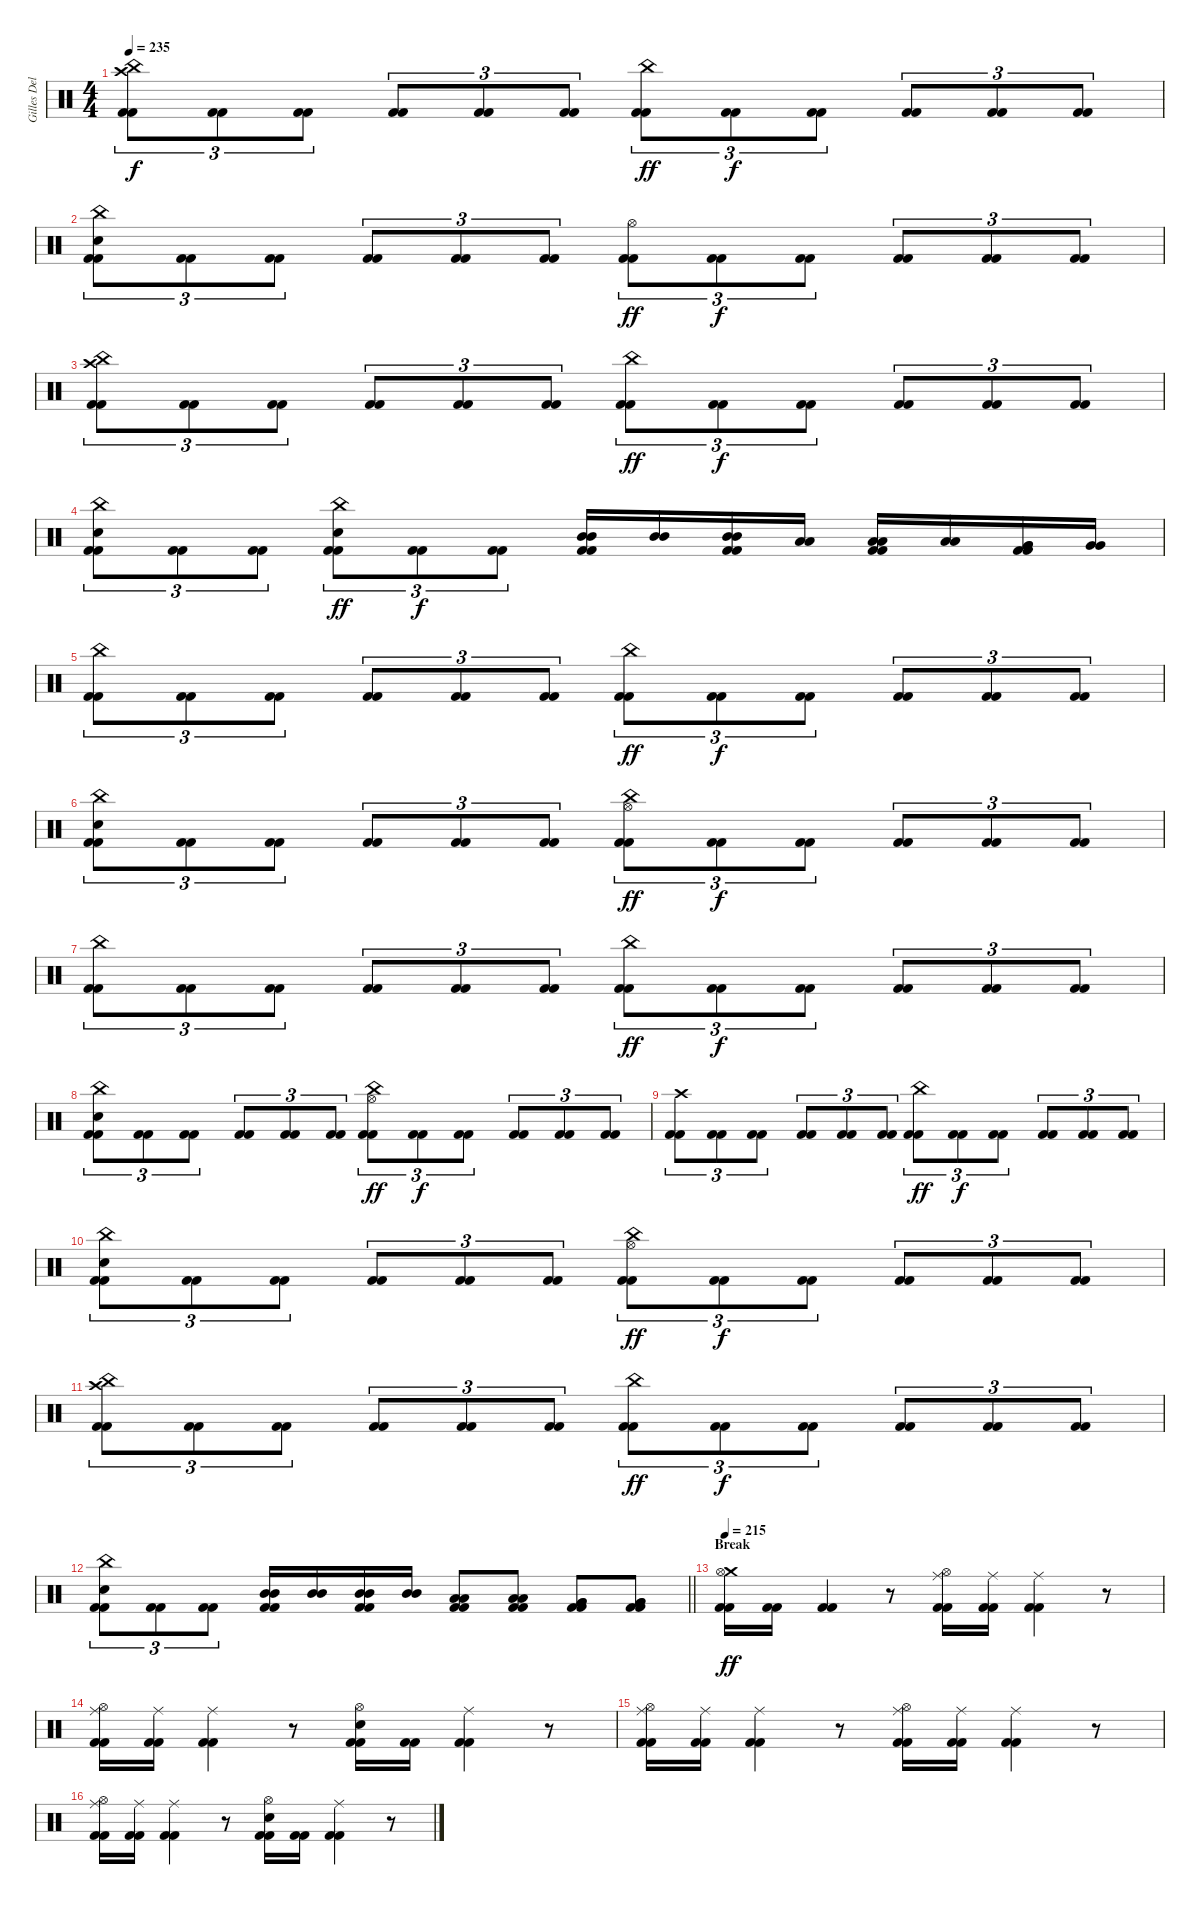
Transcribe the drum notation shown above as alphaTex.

\track ("Gilles Delecroix" "Gilles Del") {instrument percussion}
\staff {score}
\articulation defaults
\ts (4 4)
\tempo 235
\clef neutral
\ks c
("Crash high (hit)" "China (hit)" "Kick (hit) 2" "Kick (hit) 2").8{tu (3 2) dy f} ("Kick (hit) 2" "Kick (hit) 2").8{tu (3 2)} ("Kick (hit) 2" "Kick (hit) 2").8{tu (3 2)} ("Kick (hit) 2" "Kick (hit) 2").8{tu (3 2)} ("Kick (hit) 2" "Kick (hit) 2").8{tu (3 2)} ("Kick (hit) 2" "Kick (hit) 2").8{tu (3 2)} ("China (hit)" "Kick (hit) 2" "Kick (hit) 2").8{tu (3 2) dy ff} ("Kick (hit) 2" "Kick (hit) 2").8{tu (3 2) dy f} ("Kick (hit) 2" "Kick (hit) 2").8{tu (3 2)} ("Kick (hit) 2" "Kick (hit) 2").8{tu (3 2)} ("Kick (hit) 2" "Kick (hit) 2").8{tu (3 2)} ("Kick (hit) 2" "Kick (hit) 2").8{tu (3 2)} |
("China (hit)" "Electric Snare (hit)" "Kick (hit) 2" "Kick (hit) 2").8{tu (3 2)} ("Kick (hit) 2" "Kick (hit) 2").8{tu (3 2)} ("Kick (hit) 2" "Kick (hit) 2").8{tu (3 2)} ("Kick (hit) 2" "Kick (hit) 2").8{tu (3 2)} ("Kick (hit) 2" "Kick (hit) 2").8{tu (3 2)} ("Kick (hit) 2" "Kick (hit) 2").8{tu (3 2)} ("Hi-Hat (open)" "Kick (hit) 2" "Kick (hit) 2").8{tu (3 2) dy ff} ("Kick (hit) 2" "Kick (hit) 2").8{tu (3 2) dy f} ("Kick (hit) 2" "Kick (hit) 2").8{tu (3 2)} ("Kick (hit) 2" "Kick (hit) 2").8{tu (3 2)} ("Kick (hit) 2" "Kick (hit) 2").8{tu (3 2)} ("Kick (hit) 2" "Kick (hit) 2").8{tu (3 2)} |
("Crash high (hit)" "China (hit)" "Kick (hit) 2" "Kick (hit) 2").8{tu (3 2)} ("Kick (hit) 2" "Kick (hit) 2").8{tu (3 2)} ("Kick (hit) 2" "Kick (hit) 2").8{tu (3 2)} ("Kick (hit) 2" "Kick (hit) 2").8{tu (3 2)} ("Kick (hit) 2" "Kick (hit) 2").8{tu (3 2)} ("Kick (hit) 2" "Kick (hit) 2").8{tu (3 2)} ("China (hit)" "Kick (hit) 2" "Kick (hit) 2").8{tu (3 2) dy ff} ("Kick (hit) 2" "Kick (hit) 2").8{tu (3 2) dy f} ("Kick (hit) 2" "Kick (hit) 2").8{tu (3 2)} ("Kick (hit) 2" "Kick (hit) 2").8{tu (3 2)} ("Kick (hit) 2" "Kick (hit) 2").8{tu (3 2)} ("Kick (hit) 2" "Kick (hit) 2").8{tu (3 2)} |
("China (hit)" "Electric Snare (hit)" "Kick (hit) 2" "Kick (hit) 2").8{tu (3 2)} ("Kick (hit) 2" "Kick (hit) 2").8{tu (3 2)} ("Kick (hit) 2" "Kick (hit) 2").8{tu (3 2)} ("China (hit)" "Electric Snare (hit)" "Kick (hit) 2" "Kick (hit) 2").8{tu (3 2) dy ff} ("Kick (hit) 2" "Kick (hit) 2").8{tu (3 2) dy f} ("Kick (hit) 2" "Kick (hit) 2").8{tu (3 2)} ("Mid Tom (hit)" "Mid Tom (hit)" "Kick (hit) 2" "Kick (hit) 2").16 ("Mid Tom (hit)" "Mid Tom (hit)").16 ("Mid Tom (hit)" "Mid Tom (hit)" "Kick (hit) 2" "Kick (hit) 2").16 ("Low Tom (hit)" "Low Tom (hit)").16 ("Low Tom (hit)" "Low Tom (hit)" "Kick (hit) 2" "Kick (hit) 2").16 ("Low Tom (hit)" "Low Tom (hit)").16 ("Very Low Tom (hit)" "Very Low Tom (hit)" "Kick (hit) 2" "Kick (hit) 2").16 ("Very Low Tom (hit)" "Very Low Tom (hit)").16 |
("China (hit)" "Kick (hit) 2" "Kick (hit) 2").8{tu (3 2)} ("Kick (hit) 2" "Kick (hit) 2").8{tu (3 2)} ("Kick (hit) 2" "Kick (hit) 2").8{tu (3 2)} ("Kick (hit) 2" "Kick (hit) 2").8{tu (3 2)} ("Kick (hit) 2" "Kick (hit) 2").8{tu (3 2)} ("Kick (hit) 2" "Kick (hit) 2").8{tu (3 2)} ("China (hit)" "Kick (hit) 2" "Kick (hit) 2").8{tu (3 2) dy ff} ("Kick (hit) 2" "Kick (hit) 2").8{tu (3 2) dy f} ("Kick (hit) 2" "Kick (hit) 2").8{tu (3 2)} ("Kick (hit) 2" "Kick (hit) 2").8{tu (3 2)} ("Kick (hit) 2" "Kick (hit) 2").8{tu (3 2)} ("Kick (hit) 2" "Kick (hit) 2").8{tu (3 2)} |
("China (hit)" "Electric Snare (hit)" "Kick (hit) 2" "Kick (hit) 2").8{tu (3 2)} ("Kick (hit) 2" "Kick (hit) 2").8{tu (3 2)} ("Kick (hit) 2" "Kick (hit) 2").8{tu (3 2)} ("Kick (hit) 2" "Kick (hit) 2").8{tu (3 2)} ("Kick (hit) 2" "Kick (hit) 2").8{tu (3 2)} ("Kick (hit) 2" "Kick (hit) 2").8{tu (3 2)} ("Hi-Hat (open)" "China (hit)" "Kick (hit) 2" "Kick (hit) 2").8{tu (3 2) dy ff} ("Kick (hit) 2" "Kick (hit) 2").8{tu (3 2) dy f} ("Kick (hit) 2" "Kick (hit) 2").8{tu (3 2)} ("Kick (hit) 2" "Kick (hit) 2").8{tu (3 2)} ("Kick (hit) 2" "Kick (hit) 2").8{tu (3 2)} ("Kick (hit) 2" "Kick (hit) 2").8{tu (3 2)} |
("China (hit)" "Kick (hit) 2" "Kick (hit) 2").8{tu (3 2)} ("Kick (hit) 2" "Kick (hit) 2").8{tu (3 2)} ("Kick (hit) 2" "Kick (hit) 2").8{tu (3 2)} ("Kick (hit) 2" "Kick (hit) 2").8{tu (3 2)} ("Kick (hit) 2" "Kick (hit) 2").8{tu (3 2)} ("Kick (hit) 2" "Kick (hit) 2").8{tu (3 2)} ("China (hit)" "Kick (hit) 2" "Kick (hit) 2").8{tu (3 2) dy ff} ("Kick (hit) 2" "Kick (hit) 2").8{tu (3 2) dy f} ("Kick (hit) 2" "Kick (hit) 2").8{tu (3 2)} ("Kick (hit) 2" "Kick (hit) 2").8{tu (3 2)} ("Kick (hit) 2" "Kick (hit) 2").8{tu (3 2)} ("Kick (hit) 2" "Kick (hit) 2").8{tu (3 2)} |
("China (hit)" "Electric Snare (hit)" "Kick (hit) 2" "Kick (hit) 2").8{tu (3 2)} ("Kick (hit) 2" "Kick (hit) 2").8{tu (3 2)} ("Kick (hit) 2" "Kick (hit) 2").8{tu (3 2)} ("Kick (hit) 2" "Kick (hit) 2").8{tu (3 2)} ("Kick (hit) 2" "Kick (hit) 2").8{tu (3 2)} ("Kick (hit) 2" "Kick (hit) 2").8{tu (3 2)} ("Hi-Hat (open)" "China (hit)" "Kick (hit) 2" "Kick (hit) 2").8{tu (3 2) dy ff} ("Kick (hit) 2" "Kick (hit) 2").8{tu (3 2) dy f} ("Kick (hit) 2" "Kick (hit) 2").8{tu (3 2)} ("Kick (hit) 2" "Kick (hit) 2").8{tu (3 2)} ("Kick (hit) 2" "Kick (hit) 2").8{tu (3 2)} ("Kick (hit) 2" "Kick (hit) 2").8{tu (3 2)} |
("Crash high (hit)" "Kick (hit) 2" "Kick (hit) 2").8{tu (3 2)} ("Kick (hit) 2" "Kick (hit) 2").8{tu (3 2)} ("Kick (hit) 2" "Kick (hit) 2").8{tu (3 2)} ("Kick (hit) 2" "Kick (hit) 2").8{tu (3 2)} ("Kick (hit) 2" "Kick (hit) 2").8{tu (3 2)} ("Kick (hit) 2" "Kick (hit) 2").8{tu (3 2)} ("China (hit)" "Kick (hit) 2" "Kick (hit) 2").8{tu (3 2) dy ff} ("Kick (hit) 2" "Kick (hit) 2").8{tu (3 2) dy f} ("Kick (hit) 2" "Kick (hit) 2").8{tu (3 2)} ("Kick (hit) 2" "Kick (hit) 2").8{tu (3 2)} ("Kick (hit) 2" "Kick (hit) 2").8{tu (3 2)} ("Kick (hit) 2" "Kick (hit) 2").8{tu (3 2)} |
("China (hit)" "Electric Snare (hit)" "Kick (hit) 2" "Kick (hit) 2").8{tu (3 2)} ("Kick (hit) 2" "Kick (hit) 2").8{tu (3 2)} ("Kick (hit) 2" "Kick (hit) 2").8{tu (3 2)} ("Kick (hit) 2" "Kick (hit) 2").8{tu (3 2)} ("Kick (hit) 2" "Kick (hit) 2").8{tu (3 2)} ("Kick (hit) 2" "Kick (hit) 2").8{tu (3 2)} ("China (hit)" "Hi-Hat (open)" "Kick (hit) 2" "Kick (hit) 2").8{tu (3 2) dy ff} ("Kick (hit) 2" "Kick (hit) 2").8{tu (3 2) dy f} ("Kick (hit) 2" "Kick (hit) 2").8{tu (3 2)} ("Kick (hit) 2" "Kick (hit) 2").8{tu (3 2)} ("Kick (hit) 2" "Kick (hit) 2").8{tu (3 2)} ("Kick (hit) 2" "Kick (hit) 2").8{tu (3 2)} |
("Crash high (hit)" "China (hit)" "Kick (hit) 2" "Kick (hit) 2").8{tu (3 2)} ("Kick (hit) 2" "Kick (hit) 2").8{tu (3 2)} ("Kick (hit) 2" "Kick (hit) 2").8{tu (3 2)} ("Kick (hit) 2" "Kick (hit) 2").8{tu (3 2)} ("Kick (hit) 2" "Kick (hit) 2").8{tu (3 2)} ("Kick (hit) 2" "Kick (hit) 2").8{tu (3 2)} ("China (hit)" "Kick (hit) 2" "Kick (hit) 2").8{tu (3 2) dy ff} ("Kick (hit) 2" "Kick (hit) 2").8{tu (3 2) dy f} ("Kick (hit) 2" "Kick (hit) 2").8{tu (3 2)} ("Kick (hit) 2" "Kick (hit) 2").8{tu (3 2)} ("Kick (hit) 2" "Kick (hit) 2").8{tu (3 2)} ("Kick (hit) 2" "Kick (hit) 2").8{tu (3 2)} |
\barLineRight lightlight
("China (hit)" "Electric Snare (hit)" "Kick (hit) 2" "Kick (hit) 2").8{tu (3 2)} ("Kick (hit) 2" "Kick (hit) 2").8{tu (3 2)} ("Kick (hit) 2" "Kick (hit) 2").8{tu (3 2)} ("Mid Tom (hit)" "Mid Tom (hit)" "Kick (hit) 2" "Kick (hit) 2").16 ("Mid Tom (hit)" "Mid Tom (hit)").16 ("Mid Tom (hit)" "Mid Tom (hit)" "Kick (hit) 2" "Kick (hit) 2").16 ("Mid Tom (hit)" "Mid Tom (hit)").16 ("Low Tom (hit)" "Low Tom (hit)" "Kick (hit) 2" "Kick (hit) 2").8 ("Low Tom (hit)" "Low Tom (hit)" "Kick (hit) 2" "Kick (hit) 2").8 ("Very Low Tom (hit)" "Very Low Tom (hit)" "Kick (hit) 2" "Kick (hit) 2").8 ("Very Low Tom (hit)" "Very Low Tom (hit)" "Kick (hit) 2" "Kick (hit) 2").8 |
\section ("" "Break")
\tempo 215
("Crash medium (hit)" "Hi-Hat (open)" "Kick (hit) 2" "Kick (hit) 2").16{dy ff} ("Kick (hit) 2" "Kick (hit) 2").16 ("Kick (hit) 2" "Kick (hit) 2").4 r.8 ("Ride (middle)" "Hi-Hat (open)" "Kick (hit) 2" "Kick (hit) 2").16 ("Ride (middle)" "Kick (hit) 2" "Kick (hit) 2").16 ("Ride (middle)" "Kick (hit) 2" "Kick (hit) 2").4 r.8 |
("Ride (middle)" "Hi-Hat (open)" "Kick (hit) 2" "Kick (hit) 2").16 ("Ride (middle)" "Kick (hit) 2" "Kick (hit) 2").16 ("Ride (middle)" "Kick (hit) 2" "Kick (hit) 2").4 r.8 ("Electric Snare (hit)" "Hi-Hat (open)" "Kick (hit) 2" "Kick (hit) 2").16 ("Kick (hit) 2" "Kick (hit) 2").16 ("Ride (middle)" "Kick (hit) 2" "Kick (hit) 2").4 r.8 |
("Ride (middle)" "Hi-Hat (open)" "Kick (hit) 2" "Kick (hit) 2").16 ("Ride (middle)" "Kick (hit) 2" "Kick (hit) 2").16 ("Ride (middle)" "Kick (hit) 2" "Kick (hit) 2").4 r.8 ("Ride (middle)" "Hi-Hat (open)" "Kick (hit) 2" "Kick (hit) 2").16 ("Ride (middle)" "Kick (hit) 2" "Kick (hit) 2").16 ("Ride (middle)" "Kick (hit) 2" "Kick (hit) 2").4 r.8 |
("Ride (middle)" "Hi-Hat (open)" "Kick (hit) 2" "Kick (hit) 2").16 ("Ride (middle)" "Kick (hit) 2" "Kick (hit) 2").16 ("Ride (middle)" "Kick (hit) 2" "Kick (hit) 2").4 r.8 ("Electric Snare (hit)" "Hi-Hat (open)" "Kick (hit) 2" "Kick (hit) 2").16 ("Kick (hit) 2" "Kick (hit) 2").16 ("Ride (middle)" "Kick (hit) 2" "Kick (hit) 2").4 r.8
